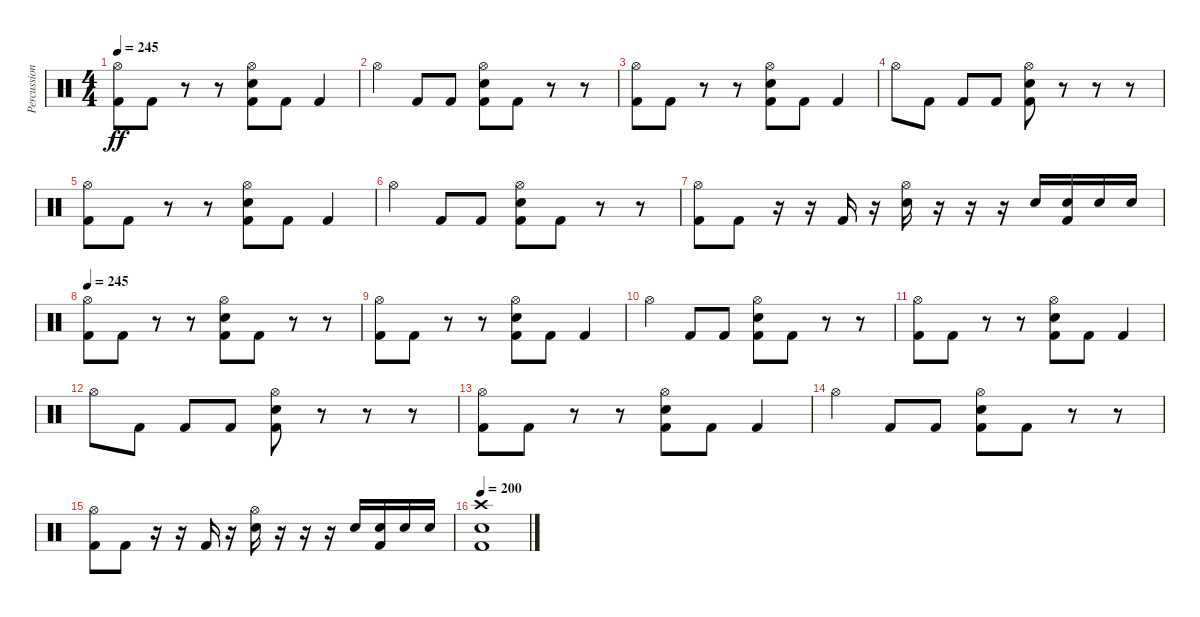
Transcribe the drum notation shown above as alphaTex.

\track ("Percussion" "Percussion") {instrument percussion}
\staff {score}
\articulation defaults
\ts (4 4)
\tempo 245
\clef neutral
\ks c
("Hi-Hat (open)" "Kick (hit) 2").8{dy ff} "Kick (hit) 2".8 r.8 r.8 ("Hi-Hat (open)" "Electric Snare (hit)" "Kick (hit) 2").8 "Kick (hit) 2".8 "Kick (hit) 2".4 |
"Hi-Hat (open)".4 "Kick (hit) 2".8 "Kick (hit) 2".8 ("Hi-Hat (open)" "Electric Snare (hit)" "Kick (hit) 2").8 "Kick (hit) 2".8 r.8 r.8 |
("Hi-Hat (open)" "Kick (hit) 2").8 "Kick (hit) 2".8 r.8 r.8 ("Hi-Hat (open)" "Electric Snare (hit)" "Kick (hit) 2").8 "Kick (hit) 2".8 "Kick (hit) 2".4 |
"Hi-Hat (open)".8 "Kick (hit) 2".8 "Kick (hit) 2".8 "Kick (hit) 2".8 ("Hi-Hat (open)" "Electric Snare (hit)" "Kick (hit) 2").8 r.8 r.8 r.8 |
("Hi-Hat (open)" "Kick (hit) 2").8 "Kick (hit) 2".8 r.8 r.8 ("Hi-Hat (open)" "Electric Snare (hit)" "Kick (hit) 2").8 "Kick (hit) 2".8 "Kick (hit) 2".4 |
"Hi-Hat (open)".4 "Kick (hit) 2".8 "Kick (hit) 2".8 ("Hi-Hat (open)" "Electric Snare (hit)" "Kick (hit) 2").8 "Kick (hit) 2".8 r.8 r.8 |
("Hi-Hat (open)" "Kick (hit) 2").8 "Kick (hit) 2".8 r.16 r.16 "Kick (hit) 2".16 r.16 ("Hi-Hat (open)" "Electric Snare (hit)").16 r.16 r.16 r.16 "Electric Snare (hit)".16 ("Electric Snare (hit)" "Kick (hit) 2").16 "Electric Snare (hit)".16 "Electric Snare (hit)".16 |
\tempo 245
("Hi-Hat (open)" "Kick (hit) 2").8 "Kick (hit) 2".8 r.8 r.8 ("Hi-Hat (open)" "Electric Snare (hit)" "Kick (hit) 2").8 "Kick (hit) 2".8 r.8 r.8 |
("Hi-Hat (open)" "Kick (hit) 2").8 "Kick (hit) 2".8 r.8 r.8 ("Hi-Hat (open)" "Electric Snare (hit)" "Kick (hit) 2").8 "Kick (hit) 2".8 "Kick (hit) 2".4 |
"Hi-Hat (open)".4 "Kick (hit) 2".8 "Kick (hit) 2".8 ("Hi-Hat (open)" "Electric Snare (hit)" "Kick (hit) 2").8 "Kick (hit) 2".8 r.8 r.8 |
("Hi-Hat (open)" "Kick (hit) 2").8 "Kick (hit) 2".8 r.8 r.8 ("Hi-Hat (open)" "Electric Snare (hit)" "Kick (hit) 2").8 "Kick (hit) 2".8 "Kick (hit) 2".4 |
"Hi-Hat (open)".8 "Kick (hit) 2".8 "Kick (hit) 2".8 "Kick (hit) 2".8 ("Hi-Hat (open)" "Electric Snare (hit)" "Kick (hit) 2").8 r.8 r.8 r.8 |
("Hi-Hat (open)" "Kick (hit) 2").8 "Kick (hit) 2".8 r.8 r.8 ("Hi-Hat (open)" "Electric Snare (hit)" "Kick (hit) 2").8 "Kick (hit) 2".8 "Kick (hit) 2".4 |
"Hi-Hat (open)".4 "Kick (hit) 2".8 "Kick (hit) 2".8 ("Hi-Hat (open)" "Electric Snare (hit)" "Kick (hit) 2").8 "Kick (hit) 2".8 r.8 r.8 |
("Hi-Hat (open)" "Kick (hit) 2").8 "Kick (hit) 2".8 r.16 r.16 "Kick (hit) 2".16 r.16 ("Hi-Hat (open)" "Electric Snare (hit)").16 r.16 r.16 r.16 "Electric Snare (hit)".16 ("Electric Snare (hit)" "Kick (hit) 2").16 "Electric Snare (hit)".16 "Electric Snare (hit)".16 |
\tempo 200
("Crash high (hit)" "Electric Snare (hit)" "Kick (hit) 2").1
